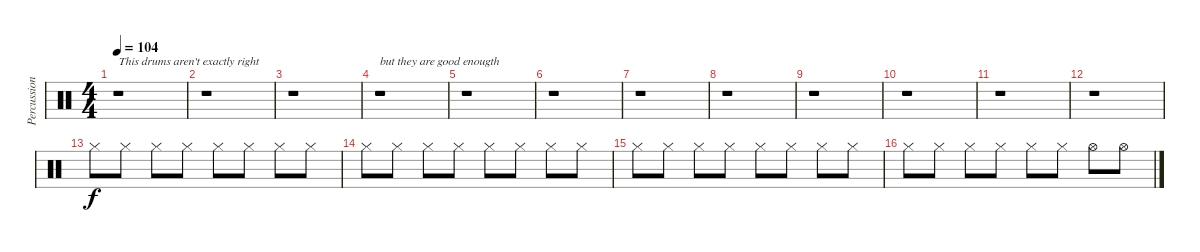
\track ("Percussion" "Percussion") {instrument percussion}
\staff {score}
\articulation defaults
\ts (4 4)
\tempo 104
\clef neutral
\ks c
r.1{txt "This drums aren't exactly right" dy f} |
r.1 |
r.1 |
r.1{txt "but they are good enougth"} |
r.1 |
r.1 |
r.1 |
r.1 |
r.1 |
r.1 |
r.1 |
r.1 |
"Hi-Hat (closed)".8 "Hi-Hat (closed)".8 "Hi-Hat (closed)".8 "Hi-Hat (closed)".8 "Hi-Hat (closed)".8 "Hi-Hat (closed)".8 "Hi-Hat (closed)".8 "Hi-Hat (closed)".8 |
"Hi-Hat (closed)".8 "Hi-Hat (closed)".8 "Hi-Hat (closed)".8 "Hi-Hat (closed)".8 "Hi-Hat (closed)".8 "Hi-Hat (closed)".8 "Hi-Hat (closed)".8 "Hi-Hat (closed)".8 |
"Hi-Hat (closed)".8 "Hi-Hat (closed)".8 "Hi-Hat (closed)".8 "Hi-Hat (closed)".8 "Hi-Hat (closed)".8 "Hi-Hat (closed)".8 "Hi-Hat (closed)".8 "Hi-Hat (closed)".8 |
"Hi-Hat (closed)".8 "Hi-Hat (closed)".8 "Hi-Hat (closed)".8 "Hi-Hat (closed)".8 "Hi-Hat (closed)".8 "Hi-Hat (closed)".8 "Hi-Hat (open)".8 "Hi-Hat (open)".8
